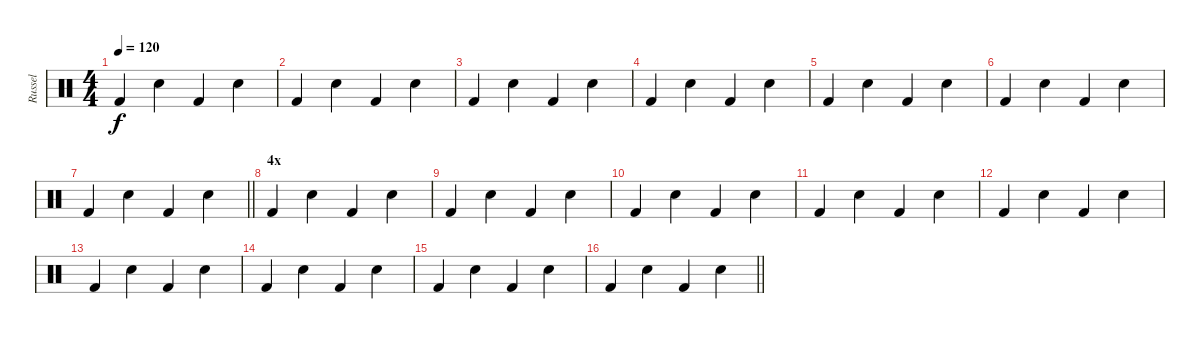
\track ("Russel" "Russel") {instrument percussion}
\staff {score}
\articulation defaults
\ts (4 4)
\tempo 120
\clef neutral
\ks c "Kick (hit) 2".4{dy f} "Hand Clap (hit)".4 "Kick (hit) 2".4 "Hand Clap (hit)".4
|
"Kick (hit) 2".4 "Hand Clap (hit)".4 "Kick (hit) 2".4 "Hand Clap (hit)".4 |
"Kick (hit) 2".4 "Hand Clap (hit)".4 "Kick (hit) 2".4 "Hand Clap (hit)".4 |
"Kick (hit) 2".4 "Hand Clap (hit)".4 "Kick (hit) 2".4 "Hand Clap (hit)".4 |
"Kick (hit) 2".4 "Hand Clap (hit)".4 "Kick (hit) 2".4 "Hand Clap (hit)".4 |
"Kick (hit) 2".4 "Hand Clap (hit)".4 "Kick (hit) 2".4 "Hand Clap (hit)".4 |
\barLineRight lightlight "Kick (hit) 2".4 "Hand Clap (hit)".4 "Kick (hit) 2".4 "Hand Clap (hit)".4
|
\section ("" "4х")
"Kick (hit) 2".4 "Hand Clap (hit)".4 "Kick (hit) 2".4 "Hand Clap (hit)".4 |
"Kick (hit) 2".4 "Hand Clap (hit)".4 "Kick (hit) 2".4 "Hand Clap (hit)".4 |
"Kick (hit) 2".4 "Hand Clap (hit)".4 "Kick (hit) 2".4 "Hand Clap (hit)".4 |
"Kick (hit) 2".4 "Hand Clap (hit)".4 "Kick (hit) 2".4 "Hand Clap (hit)".4 |
"Kick (hit) 2".4 "Hand Clap (hit)".4 "Kick (hit) 2".4 "Hand Clap (hit)".4 |
"Kick (hit) 2".4 "Hand Clap (hit)".4 "Kick (hit) 2".4 "Hand Clap (hit)".4 |
"Kick (hit) 2".4 "Hand Clap (hit)".4 "Kick (hit) 2".4 "Hand Clap (hit)".4 |
"Kick (hit) 2".4 "Hand Clap (hit)".4 "Kick (hit) 2".4 "Hand Clap (hit)".4 |
\barLineRight lightlight "Kick (hit) 2".4 "Hand Clap (hit)".4 "Kick (hit) 2".4 "Hand Clap (hit)".4
